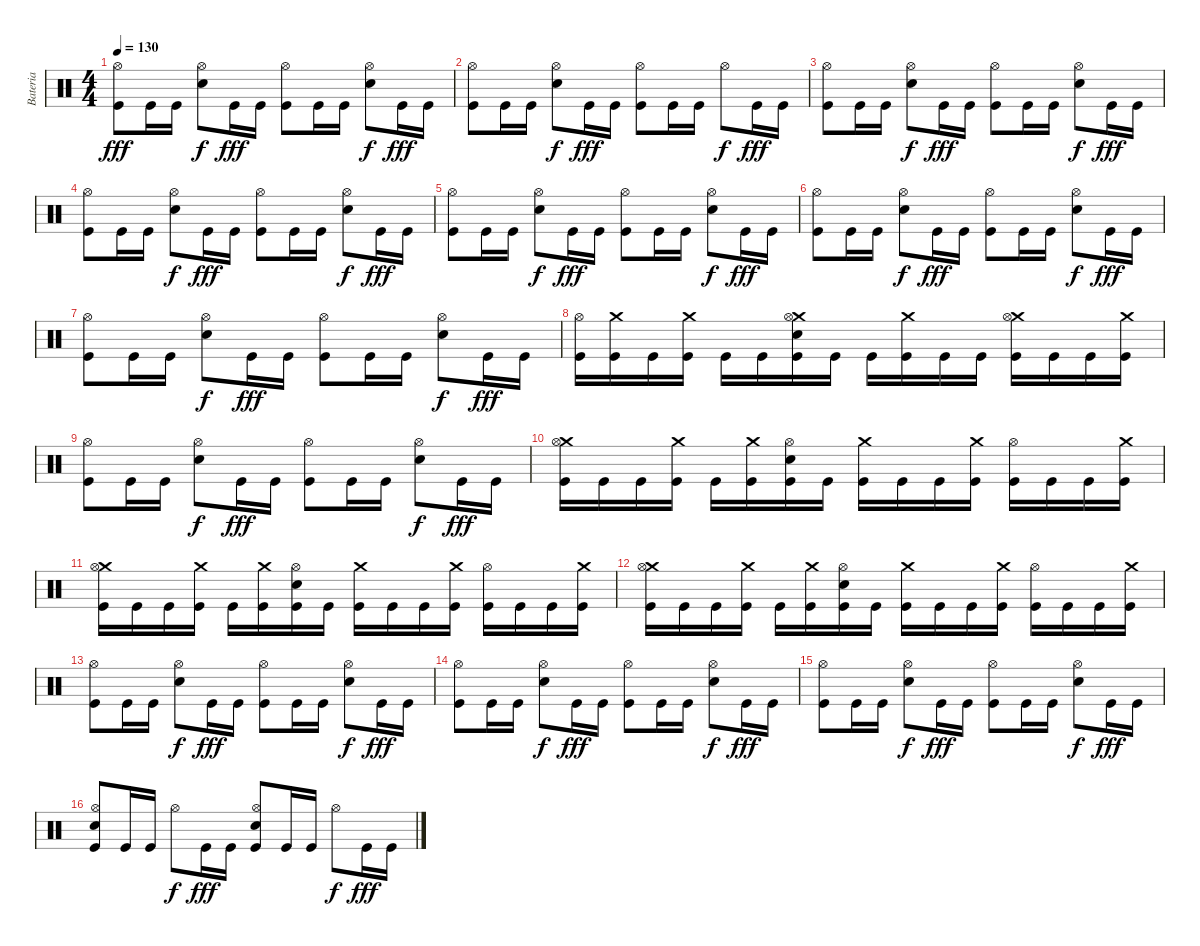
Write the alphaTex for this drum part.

\track ("Bateria" "Bateria") {instrument percussion}
\staff {score}
\articulation defaults
\ts (4 4)
\tempo 130
\clef neutral
\ks c
("Kick (hit)" "Hi-Hat (open)").8{dy fff} "Kick (hit)".16 "Kick (hit)".16 ("Electric Snare (hit)" "Hi-Hat (open)").8{dy f} "Kick (hit)".16{dy fff} "Kick (hit)".16 ("Kick (hit)" "Hi-Hat (open)").8 "Kick (hit)".16 "Kick (hit)".16 ("Electric Snare (hit)" "Hi-Hat (open)").8{dy f} "Kick (hit)".16{dy fff} "Kick (hit)".16 |
("Kick (hit)" "Hi-Hat (open)").8 "Kick (hit)".16 "Kick (hit)".16 ("Electric Snare (hit)" "Hi-Hat (open)").8{dy f} "Kick (hit)".16{dy fff} "Kick (hit)".16 ("Kick (hit)" "Hi-Hat (open)").8 "Kick (hit)".16 "Kick (hit)".16 "Hi-Hat (open)".8{dy f} "Kick (hit)".16{dy fff} "Kick (hit)".16 |
("Kick (hit)" "Hi-Hat (open)").8 "Kick (hit)".16 "Kick (hit)".16 ("Electric Snare (hit)" "Hi-Hat (open)").8{dy f} "Kick (hit)".16{dy fff} "Kick (hit)".16 ("Kick (hit)" "Hi-Hat (open)").8 "Kick (hit)".16 "Kick (hit)".16 ("Electric Snare (hit)" "Hi-Hat (open)").8{dy f} "Kick (hit)".16{dy fff} "Kick (hit)".16 |
("Kick (hit)" "Hi-Hat (open)").8 "Kick (hit)".16 "Kick (hit)".16 ("Electric Snare (hit)" "Hi-Hat (open)").8{dy f} "Kick (hit)".16{dy fff} "Kick (hit)".16 ("Kick (hit)" "Hi-Hat (open)").8 "Kick (hit)".16 "Kick (hit)".16 ("Electric Snare (hit)" "Hi-Hat (open)").8{dy f} "Kick (hit)".16{dy fff} "Kick (hit)".16 |
("Kick (hit)" "Hi-Hat (open)").8 "Kick (hit)".16 "Kick (hit)".16 ("Electric Snare (hit)" "Hi-Hat (open)").8{dy f} "Kick (hit)".16{dy fff} "Kick (hit)".16 ("Kick (hit)" "Hi-Hat (open)").8 "Kick (hit)".16 "Kick (hit)".16 ("Electric Snare (hit)" "Hi-Hat (open)").8{dy f} "Kick (hit)".16{dy fff} "Kick (hit)".16 |
("Kick (hit)" "Hi-Hat (open)").8 "Kick (hit)".16 "Kick (hit)".16 ("Electric Snare (hit)" "Hi-Hat (open)").8{dy f} "Kick (hit)".16{dy fff} "Kick (hit)".16 ("Kick (hit)" "Hi-Hat (open)").8 "Kick (hit)".16 "Kick (hit)".16 ("Electric Snare (hit)" "Hi-Hat (open)").8{dy f} "Kick (hit)".16{dy fff} "Kick (hit)".16 |
("Kick (hit)" "Hi-Hat (open)").8 "Kick (hit)".16 "Kick (hit)".16 ("Electric Snare (hit)" "Hi-Hat (open)").8{dy f} "Kick (hit)".16{dy fff} "Kick (hit)".16 ("Kick (hit)" "Hi-Hat (open)").8 "Kick (hit)".16 "Kick (hit)".16 ("Electric Snare (hit)" "Hi-Hat (open)").8{dy f} "Kick (hit)".16{dy fff} "Kick (hit)".16 |
("Kick (hit)" "Hi-Hat (open)").16 ("Kick (hit)" "Crash medium (hit)").16 "Kick (hit)".16 ("Kick (hit)" "Crash medium (hit)").16 "Kick (hit)".16 "Kick (hit)".16 ("Kick (hit)" "Crash medium (hit)" "Electric Snare (hit)" "Hi-Hat (open)").16 "Kick (hit)".16 "Kick (hit)".16 ("Kick (hit)" "Crash medium (hit)").16 "Kick (hit)".16 "Kick (hit)".16 ("Kick (hit)" "Crash medium (hit)" "Hi-Hat (open)").16 "Kick (hit)".16 "Kick (hit)".16 ("Kick (hit)" "Crash medium (hit)").16 |
("Kick (hit)" "Hi-Hat (open)").8 "Kick (hit)".16 "Kick (hit)".16 ("Electric Snare (hit)" "Hi-Hat (open)").8{dy f} "Kick (hit)".16{dy fff} "Kick (hit)".16 ("Kick (hit)" "Hi-Hat (open)").8 "Kick (hit)".16 "Kick (hit)".16 ("Electric Snare (hit)" "Hi-Hat (open)").8{dy f} "Kick (hit)".16{dy fff} "Kick (hit)".16 |
("Kick (hit)" "Crash medium (hit)" "Hi-Hat (open)").16 "Kick (hit)".16 "Kick (hit)".16 ("Kick (hit)" "Crash medium (hit)").16 "Kick (hit)".16 ("Kick (hit)" "Crash medium (hit)").16 ("Kick (hit)" "Electric Snare (hit)" "Hi-Hat (open)").16 "Kick (hit)".16 ("Kick (hit)" "Crash medium (hit)").16 "Kick (hit)".16 "Kick (hit)".16 ("Kick (hit)" "Crash medium (hit)").16 ("Kick (hit)" "Hi-Hat (open)").16 "Kick (hit)".16 "Kick (hit)".16 ("Kick (hit)" "Crash medium (hit)").16 |
("Kick (hit)" "Crash medium (hit)" "Hi-Hat (open)").16 "Kick (hit)".16 "Kick (hit)".16 ("Kick (hit)" "Crash medium (hit)").16 "Kick (hit)".16 ("Kick (hit)" "Crash medium (hit)").16 ("Kick (hit)" "Electric Snare (hit)" "Hi-Hat (open)").16 "Kick (hit)".16 ("Kick (hit)" "Crash medium (hit)").16 "Kick (hit)".16 "Kick (hit)".16 ("Kick (hit)" "Crash medium (hit)").16 ("Kick (hit)" "Hi-Hat (open)").16 "Kick (hit)".16 "Kick (hit)".16 ("Kick (hit)" "Crash medium (hit)").16 |
("Kick (hit)" "Crash medium (hit)" "Hi-Hat (open)").16 "Kick (hit)".16 "Kick (hit)".16 ("Kick (hit)" "Crash medium (hit)").16 "Kick (hit)".16 ("Kick (hit)" "Crash medium (hit)").16 ("Kick (hit)" "Electric Snare (hit)" "Hi-Hat (open)").16 "Kick (hit)".16 ("Kick (hit)" "Crash medium (hit)").16 "Kick (hit)".16 "Kick (hit)".16 ("Kick (hit)" "Crash medium (hit)").16 ("Kick (hit)" "Hi-Hat (open)").16 "Kick (hit)".16 "Kick (hit)".16 ("Kick (hit)" "Crash medium (hit)").16 |
("Kick (hit)" "Hi-Hat (open)").8 "Kick (hit)".16 "Kick (hit)".16 ("Electric Snare (hit)" "Hi-Hat (open)").8{dy f} "Kick (hit)".16{dy fff} "Kick (hit)".16 ("Kick (hit)" "Hi-Hat (open)").8 "Kick (hit)".16 "Kick (hit)".16 ("Electric Snare (hit)" "Hi-Hat (open)").8{dy f} "Kick (hit)".16{dy fff} "Kick (hit)".16 |
("Kick (hit)" "Hi-Hat (open)").8 "Kick (hit)".16 "Kick (hit)".16 ("Electric Snare (hit)" "Hi-Hat (open)").8{dy f} "Kick (hit)".16{dy fff} "Kick (hit)".16 ("Kick (hit)" "Hi-Hat (open)").8 "Kick (hit)".16 "Kick (hit)".16 ("Electric Snare (hit)" "Hi-Hat (open)").8{dy f} "Kick (hit)".16{dy fff} "Kick (hit)".16 |
("Kick (hit)" "Hi-Hat (open)").8 "Kick (hit)".16 "Kick (hit)".16 ("Electric Snare (hit)" "Hi-Hat (open)").8{dy f} "Kick (hit)".16{dy fff} "Kick (hit)".16 ("Kick (hit)" "Hi-Hat (open)").8 "Kick (hit)".16 "Kick (hit)".16 ("Electric Snare (hit)" "Hi-Hat (open)").8{dy f} "Kick (hit)".16{dy fff} "Kick (hit)".16 |
("Kick (hit)" "Electric Snare (hit)" "Hi-Hat (open)").8 "Kick (hit)".16 "Kick (hit)".16 "Hi-Hat (open)".8{dy f} "Kick (hit)".16{dy fff} "Kick (hit)".16 ("Kick (hit)" "Electric Snare (hit)" "Hi-Hat (open)").8 "Kick (hit)".16 "Kick (hit)".16 "Hi-Hat (open)".8{dy f} "Kick (hit)".16{dy fff} "Kick (hit)".16
